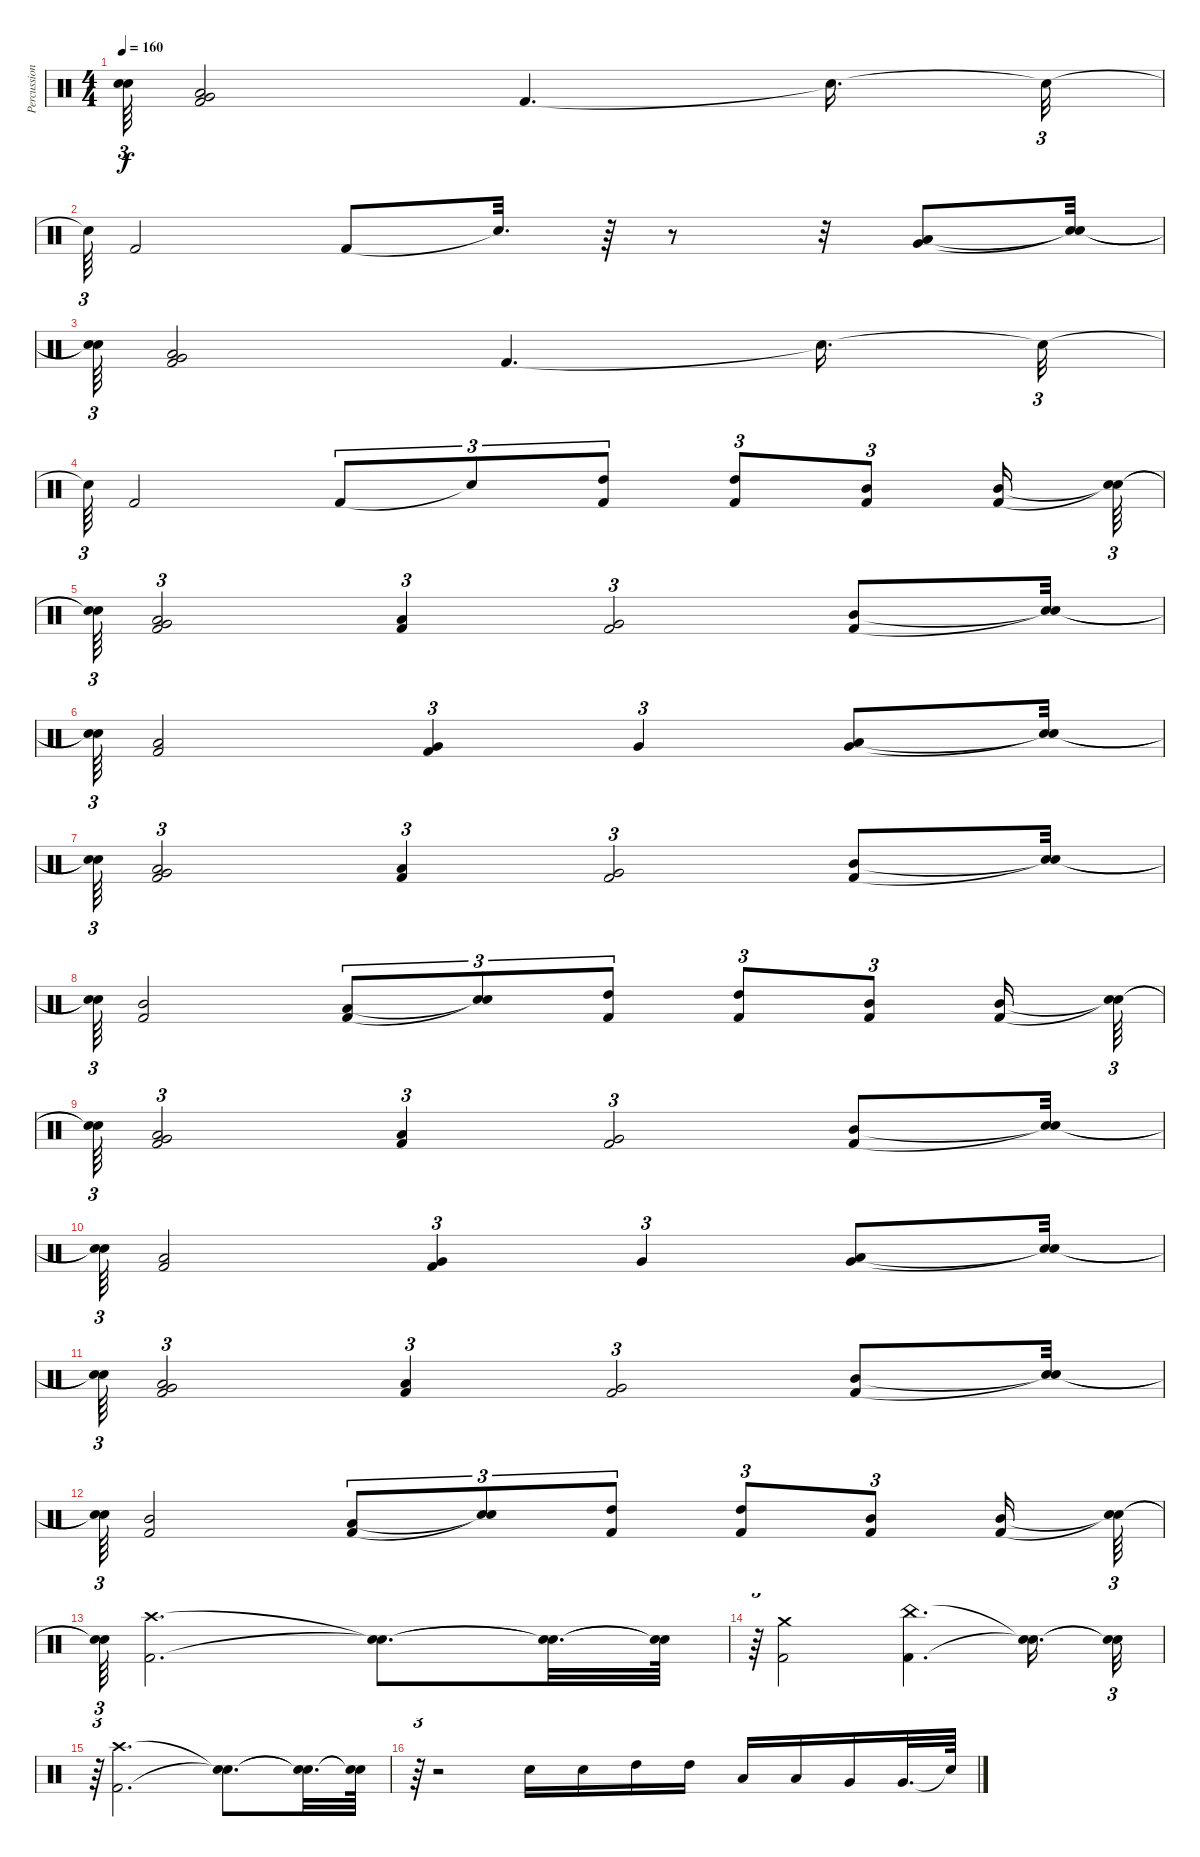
\track ("Percussion" "Percussion") {instrument percussion}
\staff {score}
\articulation defaults
\ts (4 4)
\tempo 160
\clef neutral
\ks c
("Snare (hit)"{t} "Snare (hit)"{t}).64{tu (3 2) dy f} ("Very Low Tom (hit)" "Low Floor Tom (hit)" "Kick (hit) 2").2 "Kick (hit) 2".4{d} "Snare (hit)"{t}.16{d} "Snare (hit)"{t}.32{tu (3 2)} |
"Snare (hit)"{t}.64{tu (3 2)} "Kick (hit) 2".2 "Kick (hit) 2".8 "Snare (hit)"{t}.32{d} r.64 r.8 r.32 ("Low Tom (hit)" "Very Low Tom (hit)").8 ("Snare (hit)"{t} "Snare (hit)"{t}).32 |
("Snare (hit)"{t} "Snare (hit)"{t}).64{tu (3 2)} ("Very Low Tom (hit)" "Low Floor Tom (hit)" "Kick (hit) 2").2 "Kick (hit) 2".4{d} "Snare (hit)"{t}.16{d} "Snare (hit)"{t}.32{tu (3 2)} |
"Snare (hit)"{t}.64{tu (3 2)} "Kick (hit) 2".2 "Kick (hit) 2".8{tu (3 2)} "Snare (hit)"{t}.8{tu (3 2)} ("High Tom (hit)" "Kick (hit) 2").8{tu (3 2)} ("High Tom (hit)" "Kick (hit) 2").8{tu (3 2)} ("Mid Tom (hit)" "Kick (hit) 2").8{tu (3 2)} ("Mid Tom (hit)" "Kick (hit) 2").16 ("Snare (hit)"{t} "Snare (hit)"{t}).64{tu (3 2)} |
("Snare (hit)"{t} "Snare (hit)"{t}).64{tu (3 2)} ("Very Low Tom (hit)" "Low Floor Tom (hit)" "Kick (hit) 2").2{tu (3 2)} ("Low Tom (hit)" "Kick (hit) 2").4{tu (3 2)} ("Very Low Tom (hit)" "Kick (hit) 2").2{tu (3 2)} ("Mid Tom (hit)" "Kick (hit) 2").8 ("Snare (hit)"{t} "Snare (hit)"{t}).32 |
("Snare (hit)"{t} "Snare (hit)"{t}).64{tu (3 2)} ("Low Tom (hit)" "Kick (hit) 2").2 ("Very Low Tom (hit)" "Kick (hit) 2").4{tu (3 2)} "Very Low Tom (hit)".4{tu (3 2)} ("Low Tom (hit)" "Very Low Tom (hit)").8 ("Snare (hit)"{t} "Snare (hit)"{t}).32 |
("Snare (hit)"{t} "Snare (hit)"{t}).64{tu (3 2)} ("Very Low Tom (hit)" "Low Floor Tom (hit)" "Kick (hit) 2").2{tu (3 2)} ("Low Tom (hit)" "Kick (hit) 2").4{tu (3 2)} ("Very Low Tom (hit)" "Kick (hit) 2").2{tu (3 2)} ("Mid Tom (hit)" "Kick (hit) 2").8 ("Snare (hit)"{t} "Snare (hit)"{t}).32 |
("Snare (hit)"{t} "Snare (hit)"{t}).64{tu (3 2)} ("Mid Tom (hit)" "Kick (hit) 2").2 ("Low Tom (hit)" "Kick (hit) 2").8{tu (3 2)} ("Snare (hit)"{t} "Snare (hit)"{t}).8{tu (3 2)} ("High Tom (hit)" "Kick (hit) 2").8{tu (3 2)} ("High Tom (hit)" "Kick (hit) 2").8{tu (3 2)} ("Mid Tom (hit)" "Kick (hit) 2").8{tu (3 2)} ("Mid Tom (hit)" "Kick (hit) 2").16 ("Snare (hit)"{t} "Snare (hit)"{t}).64{tu (3 2)} |
("Snare (hit)"{t} "Snare (hit)"{t}).64{tu (3 2)} ("Very Low Tom (hit)" "Low Floor Tom (hit)" "Kick (hit) 2").2{tu (3 2)} ("Low Tom (hit)" "Kick (hit) 2").4{tu (3 2)} ("Very Low Tom (hit)" "Kick (hit) 2").2{tu (3 2)} ("Mid Tom (hit)" "Kick (hit) 2").8 ("Snare (hit)"{t} "Snare (hit)"{t}).32 |
("Snare (hit)"{t} "Snare (hit)"{t}).64{tu (3 2)} ("Low Tom (hit)" "Kick (hit) 2").2 ("Very Low Tom (hit)" "Kick (hit) 2").4{tu (3 2)} "Very Low Tom (hit)".4{tu (3 2)} ("Low Tom (hit)" "Very Low Tom (hit)").8 ("Snare (hit)"{t} "Snare (hit)"{t}).32 |
("Snare (hit)"{t} "Snare (hit)"{t}).64{tu (3 2)} ("Very Low Tom (hit)" "Low Floor Tom (hit)" "Kick (hit) 2").2{tu (3 2)} ("Low Tom (hit)" "Kick (hit) 2").4{tu (3 2)} ("Very Low Tom (hit)" "Kick (hit) 2").2{tu (3 2)} ("Mid Tom (hit)" "Kick (hit) 2").8 ("Snare (hit)"{t} "Snare (hit)"{t}).32 |
("Snare (hit)"{t} "Snare (hit)"{t}).64{tu (3 2)} ("Mid Tom (hit)" "Kick (hit) 2").2 ("Low Tom (hit)" "Kick (hit) 2").8{tu (3 2)} ("Snare (hit)"{t} "Snare (hit)"{t}).8{tu (3 2)} ("High Tom (hit)" "Kick (hit) 2").8{tu (3 2)} ("High Tom (hit)" "Kick (hit) 2").8{tu (3 2)} ("Mid Tom (hit)" "Kick (hit) 2").8{tu (3 2)} ("Mid Tom (hit)" "Kick (hit) 2").16 ("Snare (hit)"{t} "Snare (hit)"{t}).64{tu (3 2)} |
("Snare (hit)"{t} "Snare (hit)"{t}).64{tu (3 2)} ("Crash high (hit)" "Kick (hit) 2").2{d} ("Snare (hit)"{t} "Snare (hit)"{t}).8{d} ("Snare (hit)"{t} "Snare (hit)"{t}).32{d} ("Snare (hit)"{t} "Snare (hit)"{t}).64 |
r.64{tu (3 2)} ("Crash medium (hit)" "Kick (hit) 2").2 ("China (hit)" "Kick (hit) 2").4{d} ("Snare (hit)"{t} "Snare (hit)"{t}).16{d} ("Snare (hit)"{t} "Snare (hit)"{t}).32{tu (3 2)} |
r.64{tu (3 2)} ("Crash high (hit)" "Kick (hit) 2").2{d} ("Snare (hit)"{t} "Snare (hit)"{t}).8{d} ("Snare (hit)"{t} "Snare (hit)"{t}).32{d} ("Snare (hit)"{t} "Snare (hit)"{t}).64 |
r.64{tu (3 2)} r.2 "Electric Snare (hit)".16 "Electric Snare (hit)".16 "High Tom (hit)".16 "High Tom (hit)".16 "Low Tom (hit)".16 "Low Tom (hit)".16 "Very Low Tom (hit)".16 "Very Low Tom (hit)".32{d} "Snare (hit)"{t}.64
